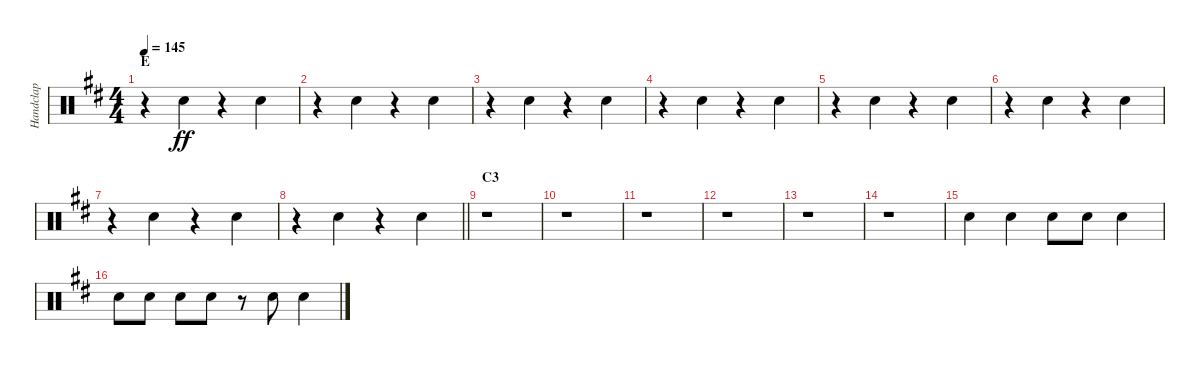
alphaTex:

\track ("Handclap" "Handclap") {instrument percussion}
\staff {score}
\articulation defaults
\ts (4 4)
\section ("" "E")
\tempo 145
\clef neutral
\ks d
r.4{dy ff} "Hand Clap (hit)".4 r.4 "Hand Clap (hit)".4 |
r.4 "Hand Clap (hit)".4 r.4 "Hand Clap (hit)".4 |
r.4 "Hand Clap (hit)".4 r.4 "Hand Clap (hit)".4 |
r.4 "Hand Clap (hit)".4 r.4 "Hand Clap (hit)".4 |
r.4 "Hand Clap (hit)".4 r.4 "Hand Clap (hit)".4 |
r.4 "Hand Clap (hit)".4 r.4 "Hand Clap (hit)".4 |
r.4 "Hand Clap (hit)".4 r.4 "Hand Clap (hit)".4 |
\barLineRight lightlight
r.4 "Hand Clap (hit)".4 r.4 "Hand Clap (hit)".4 |
\section ("" "C3")
r.1 |
r.1 |
r.1 |
r.1 |
r.1 |
r.1 |
"Hand Clap (hit)".4 "Hand Clap (hit)".4 "Hand Clap (hit)".8 "Hand Clap (hit)".8 "Hand Clap (hit)".4 |
"Hand Clap (hit)".8 "Hand Clap (hit)".8 "Hand Clap (hit)".8 "Hand Clap (hit)".8 r.8 "Hand Clap (hit)".8 "Hand Clap (hit)".4
